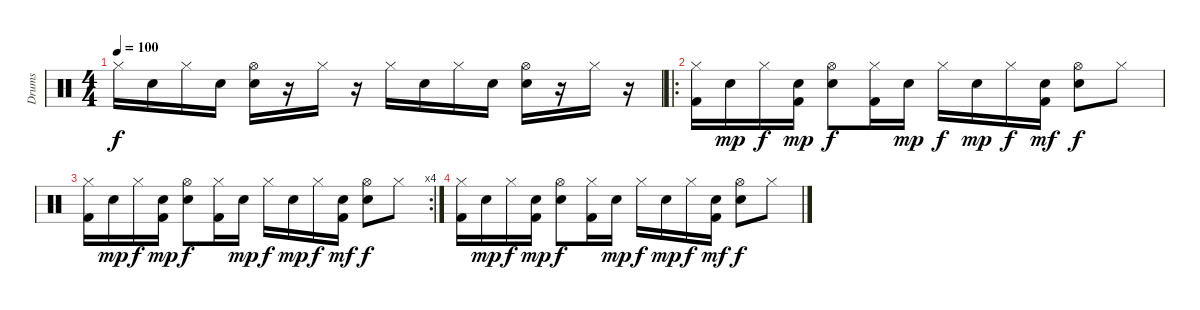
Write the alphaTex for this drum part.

\track ("Drums" "Drums") {instrument percussion}
\staff {score}
\articulation defaults
\ts (4 4)
\tempo 100
\clef neutral
\ks c "Hi-Hat (closed)".16{dy f} "Snare (hit) 2".16 "Hi-Hat (closed)".16 "Snare (hit) 2".16
("Hi-Hat (open)" "Snare (hit) 2").16 r.16 "Hi-Hat (closed)".16 r.16 "Hi-Hat (closed)".16 "Snare (hit) 2".16 "Hi-Hat (closed)".16 "Snare (hit) 2".16 ("Hi-Hat (open)" "Snare (hit) 2").16 r.16 "Hi-Hat (closed)".16 r.16 |
\ro
("Hi-Hat (closed)" "Kick (hit) 2").16 "Snare (hit) 2".16{dy mp} "Hi-Hat (closed)".16{dy f} ("Snare (hit) 2" "Kick (hit) 2").16{dy mp} ("Hi-Hat (open)" "Snare (hit) 2").8{dy f} ("Hi-Hat (closed)" "Kick (hit) 2").16 "Snare (hit) 2".16{dy mp} "Hi-Hat (closed)".16{dy f} "Snare (hit) 2".16{dy mp} "Hi-Hat (closed)".16{dy f} ("Snare (hit) 2" "Kick (hit) 2").16{dy mf} ("Hi-Hat (open)" "Snare (hit) 2").8{dy f} "Hi-Hat (closed)".8 |
\rc 4
("Hi-Hat (closed)" "Kick (hit) 2").16 "Snare (hit) 2".16{dy mp} "Hi-Hat (closed)".16{dy f} ("Snare (hit) 2" "Kick (hit) 2").16{dy mp} ("Hi-Hat (open)" "Snare (hit) 2").8{dy f} ("Hi-Hat (closed)" "Kick (hit) 2").16 "Snare (hit) 2".16{dy mp} "Hi-Hat (closed)".16{dy f} "Snare (hit) 2".16{dy mp} "Hi-Hat (closed)".16{dy f} ("Snare (hit) 2" "Kick (hit) 2").16{dy mf} ("Hi-Hat (open)" "Snare (hit) 2").8{dy f} "Hi-Hat (closed)".8 |
("Hi-Hat (closed)" "Kick (hit) 2").16 "Snare (hit) 2".16{dy mp} "Hi-Hat (closed)".16{dy f} ("Snare (hit) 2" "Kick (hit) 2").16{dy mp} ("Hi-Hat (open)" "Snare (hit) 2").8{dy f} ("Hi-Hat (closed)" "Kick (hit) 2").16 "Snare (hit) 2".16{dy mp} "Hi-Hat (closed)".16{dy f} "Snare (hit) 2".16{dy mp} "Hi-Hat (closed)".16{dy f} ("Snare (hit) 2" "Kick (hit) 2").16{dy mf} ("Hi-Hat (open)" "Snare (hit) 2").8{dy f} "Hi-Hat (closed)".8
